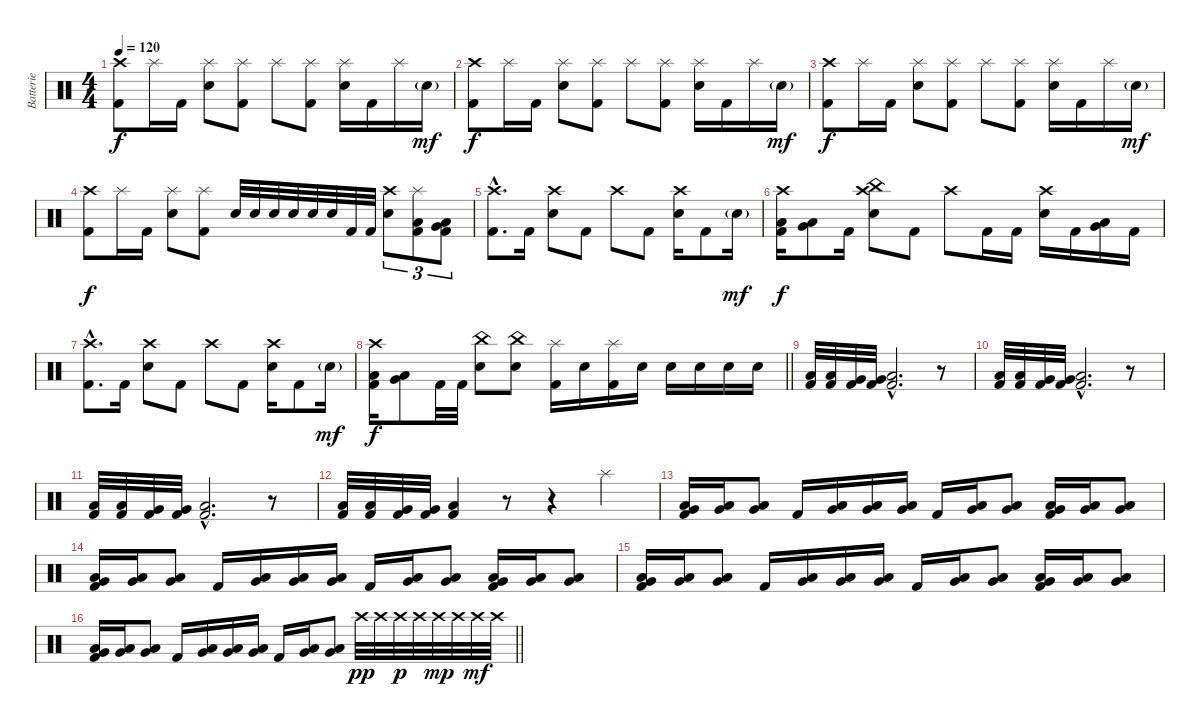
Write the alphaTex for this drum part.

\track ("Batterie" "Batterie") {instrument percussion}
\staff {score}
\articulation defaults
\ts (4 4)
\tempo 120
\clef neutral
\ks c
("Crash high (hit)" "Kick (hit) 2").8{dy f} "Splash (hit)".16 "Kick (hit) 2".16 ("Splash (hit)" "Electric Snare (hit)").8 ("Splash (hit)" "Kick (hit) 2").8 "Splash (hit)".8 ("Splash (hit)" "Kick (hit) 2").8 ("Splash (hit)" "Electric Snare (hit)").16 "Kick (hit) 2".16 "Splash (hit)".16 "Electric Snare (hit)"{g}.16{dy mf} |
("Crash high (hit)" "Kick (hit) 2").8{dy f} "Splash (hit)".16 "Kick (hit) 2".16 ("Splash (hit)" "Electric Snare (hit)").8 ("Splash (hit)" "Kick (hit) 2").8 "Splash (hit)".8 ("Splash (hit)" "Kick (hit) 2").8 ("Splash (hit)" "Electric Snare (hit)").16 "Kick (hit) 2".16 "Splash (hit)".16 "Electric Snare (hit)"{g}.16{dy mf} |
("Crash high (hit)" "Kick (hit) 2").8{dy f} "Splash (hit)".16 "Kick (hit) 2".16 ("Splash (hit)" "Electric Snare (hit)").8 ("Splash (hit)" "Kick (hit) 2").8 "Splash (hit)".8 ("Splash (hit)" "Kick (hit) 2").8 ("Splash (hit)" "Electric Snare (hit)").16 "Kick (hit) 2".16 "Splash (hit)".16 "Electric Snare (hit)"{g}.16{dy mf} |
("Crash high (hit)" "Kick (hit) 2").8{dy f} "Splash (hit)".16 "Kick (hit) 2".16 ("Splash (hit)" "Electric Snare (hit)").8 ("Splash (hit)" "Kick (hit) 2").8 "Electric Snare (hit)".32 "Electric Snare (hit)".32 "Electric Snare (hit)".32 "Electric Snare (hit)".32 "Electric Snare (hit)".32 "Electric Snare (hit)".32 "Kick (hit) 2".32 "Kick (hit) 2".32 ("Crash high (hit)" "Electric Snare (hit)").8{tu (3 2)} ("Splash (hit)" "Low Tom (hit)" "Kick (hit) 2").8{tu (3 2)} ("Very Low Tom (hit)" "Low Floor Tom (hit)" "Kick (hit) 2").8{tu (3 2)} |
("Crash high (hit)"{hac} "Kick (hit) 2"{hac}).8{d} "Kick (hit) 2".16 ("Crash high (hit)" "Electric Snare (hit)").8 "Kick (hit) 2".8 "Crash high (hit)".8 "Kick (hit) 2".8 ("Crash high (hit)" "Electric Snare (hit)").16 "Kick (hit) 2".8 "Electric Snare (hit)"{g}.16{dy mf} |
("Crash high (hit)" "Low Tom (hit)" "Kick (hit) 2").16{dy f} ("Low Tom (hit)" "Very Low Tom (hit)").8 "Kick (hit) 2".16 ("Crash high (hit)" "China (hit)" "Electric Snare (hit)").8 "Kick (hit) 2".8 "Crash high (hit)".8 "Kick (hit) 2".16 "Kick (hit) 2".16 ("Crash high (hit)" "Electric Snare (hit)").16 "Kick (hit) 2".16 ("Low Tom (hit)" "Very Low Tom (hit)").16 "Kick (hit) 2".16 |
("Crash high (hit)"{hac} "Kick (hit) 2"{hac}).8{d} "Kick (hit) 2".16 ("Crash high (hit)" "Electric Snare (hit)").8 "Kick (hit) 2".8 "Crash high (hit)".8 "Kick (hit) 2".8 ("Crash high (hit)" "Electric Snare (hit)").16 "Kick (hit) 2".8 "Electric Snare (hit)"{g}.16{dy mf} |
\barLineRight lightlight
("Crash high (hit)" "Low Tom (hit)" "Kick (hit) 2").16{dy f} ("Low Tom (hit)" "Very Low Tom (hit)").8 "Kick (hit) 2".32 "Kick (hit) 2".32 ("China (hit)" "Electric Snare (hit)").8 ("China (hit)" "Electric Snare (hit)").8 ("Splash (hit)" "Kick (hit) 2").16 "Electric Snare (hit)".16 ("Splash (hit)" "Kick (hit) 2").16 "Electric Snare (hit)".16 "Electric Snare (hit)".16 "Electric Snare (hit)".16 "Electric Snare (hit)".16 "Electric Snare (hit)".16 |
("Low Tom (hit)" "Kick (hit) 2").32 ("Low Tom (hit)" "Kick (hit) 2").32 ("Very Low Tom (hit)" "Kick (hit) 2").32 ("Very Low Tom (hit)" "Kick (hit) 2").32 ("Low Floor Tom (hit)"{hac} "Kick (hit) 2"{hac}).2{d} r.8 |
("Low Tom (hit)" "Kick (hit) 2").32 ("Low Tom (hit)" "Kick (hit) 2").32 ("Very Low Tom (hit)" "Kick (hit) 2").32 ("Very Low Tom (hit)" "Kick (hit) 2").32 ("Low Floor Tom (hit)"{hac} "Kick (hit) 2"{hac}).2{d} r.8 |
("Low Tom (hit)" "Kick (hit) 2").32 ("Low Tom (hit)" "Kick (hit) 2").32 ("Very Low Tom (hit)" "Kick (hit) 2").32 ("Very Low Tom (hit)" "Kick (hit) 2").32 ("Low Floor Tom (hit)"{hac} "Kick (hit) 2"{hac}).2{d} r.8 |
("Low Tom (hit)" "Kick (hit) 2").32 ("Low Tom (hit)" "Kick (hit) 2").32 ("Very Low Tom (hit)" "Kick (hit) 2").32 ("Very Low Tom (hit)" "Kick (hit) 2").32 ("Low Floor Tom (hit)" "Kick (hit) 2").4 r.8 r.4 "Splash (hit)".4 |
("Low Tom (hit)" "Very Low Tom (hit)" "Kick (hit) 2").16 ("Low Tom (hit)" "Very Low Tom (hit)").16 ("Low Tom (hit)" "Very Low Tom (hit)").8 "Kick (hit) 2".16 ("Low Tom (hit)" "Very Low Tom (hit)").16 ("Low Tom (hit)" "Very Low Tom (hit)").16 ("Low Tom (hit)" "Very Low Tom (hit)").16 "Kick (hit) 2".16 ("Low Tom (hit)" "Very Low Tom (hit)").16 ("Low Tom (hit)" "Very Low Tom (hit)").8 ("Low Tom (hit)" "Very Low Tom (hit)" "Kick (hit) 2").16 ("Low Tom (hit)" "Very Low Tom (hit)").16 ("Low Tom (hit)" "Very Low Tom (hit)").8 |
("Low Tom (hit)" "Very Low Tom (hit)" "Kick (hit) 2").16 ("Low Tom (hit)" "Very Low Tom (hit)").16 ("Low Tom (hit)" "Very Low Tom (hit)").8 "Kick (hit) 2".16 ("Low Tom (hit)" "Very Low Tom (hit)").16 ("Low Tom (hit)" "Very Low Tom (hit)").16 ("Low Tom (hit)" "Very Low Tom (hit)").16 "Kick (hit) 2".16 ("Low Tom (hit)" "Very Low Tom (hit)").16 ("Low Tom (hit)" "Very Low Tom (hit)").8 ("Low Tom (hit)" "Very Low Tom (hit)" "Kick (hit) 2").16 ("Low Tom (hit)" "Very Low Tom (hit)").16 ("Low Tom (hit)" "Very Low Tom (hit)").8 |
("Low Tom (hit)" "Very Low Tom (hit)" "Kick (hit) 2").16 ("Low Tom (hit)" "Very Low Tom (hit)").16 ("Low Tom (hit)" "Very Low Tom (hit)").8 "Kick (hit) 2".16 ("Low Tom (hit)" "Very Low Tom (hit)").16 ("Low Tom (hit)" "Very Low Tom (hit)").16 ("Low Tom (hit)" "Very Low Tom (hit)").16 "Kick (hit) 2".16 ("Low Tom (hit)" "Very Low Tom (hit)").16 ("Low Tom (hit)" "Very Low Tom (hit)").8 ("Low Tom (hit)" "Very Low Tom (hit)" "Kick (hit) 2").16 ("Low Tom (hit)" "Very Low Tom (hit)").16 ("Low Tom (hit)" "Very Low Tom (hit)").8 |
\barLineRight lightlight
("Low Tom (hit)" "Very Low Tom (hit)" "Kick (hit) 2").16 ("Low Tom (hit)" "Very Low Tom (hit)").16 ("Low Tom (hit)" "Very Low Tom (hit)").8 "Kick (hit) 2".16 ("Low Tom (hit)" "Very Low Tom (hit)").16 ("Low Tom (hit)" "Very Low Tom (hit)").16 ("Low Tom (hit)" "Very Low Tom (hit)").16 "Kick (hit) 2".16 ("Low Tom (hit)" "Very Low Tom (hit)").16 ("Low Tom (hit)" "Very Low Tom (hit)").8 "Crash high (hit)".32{dy pp} "Crash high (hit)".32 "Crash high (hit)".32{dy p} "Crash high (hit)".32 "Crash high (hit)".32{dy mp} "Crash high (hit)".32 "Crash high (hit)".32{dy mf} "Crash high (hit)".32
